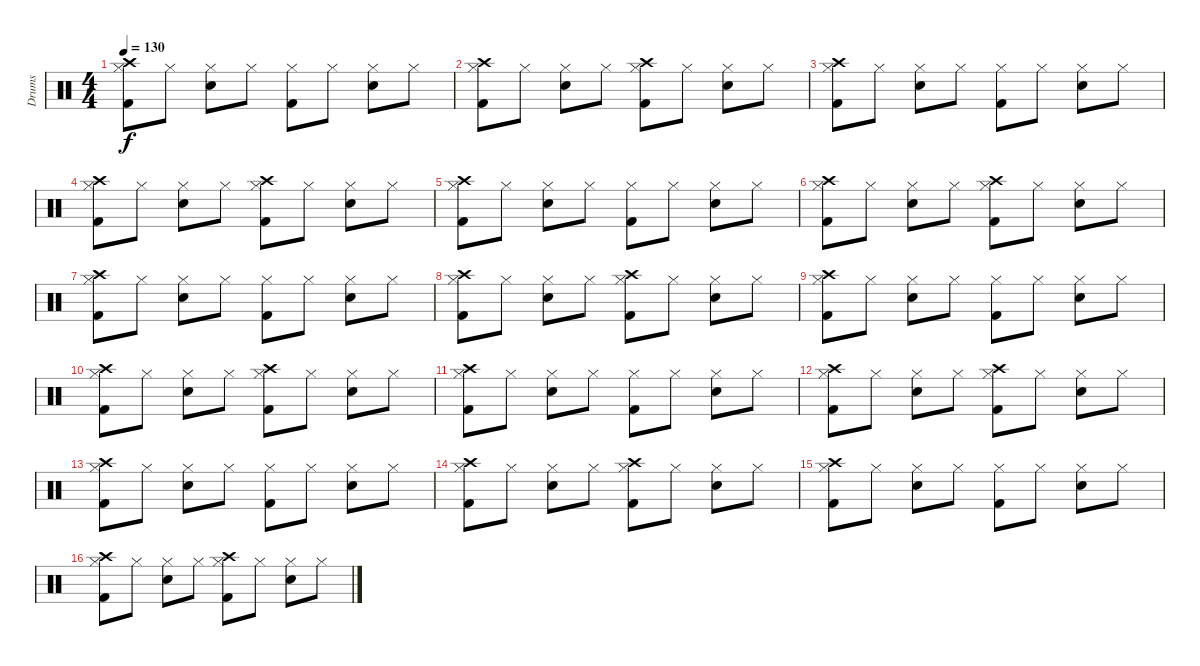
\track ("Drums" "Drums") {instrument percussion}
\staff {score}
\articulation defaults
\ts (4 4)
\tempo 130
\clef neutral
\ks c
("Kick (hit) 2" "Hi-Hat (closed)" "Crash high (hit)").8{dy f} "Hi-Hat (closed)".8 ("Snare (hit) 2" "Hi-Hat (closed)").8 "Hi-Hat (closed)".8 ("Kick (hit) 2" "Hi-Hat (closed)").8 "Hi-Hat (closed)".8 ("Snare (hit) 2" "Hi-Hat (closed)").8 "Hi-Hat (closed)".8 |
("Kick (hit) 2" "Hi-Hat (closed)" "Crash high (hit)").8 "Hi-Hat (closed)".8 ("Snare (hit) 2" "Hi-Hat (closed)").8 "Hi-Hat (closed)".8 ("Kick (hit) 2" "Hi-Hat (closed)" "Crash high (hit)").8 "Hi-Hat (closed)".8 ("Snare (hit) 2" "Hi-Hat (closed)").8 "Hi-Hat (closed)".8 |
("Kick (hit) 2" "Hi-Hat (closed)" "Crash high (hit)").8 "Hi-Hat (closed)".8 ("Snare (hit) 2" "Hi-Hat (closed)").8 "Hi-Hat (closed)".8 ("Kick (hit) 2" "Hi-Hat (closed)").8 "Hi-Hat (closed)".8 ("Snare (hit) 2" "Hi-Hat (closed)").8 "Hi-Hat (closed)".8 |
("Kick (hit) 2" "Hi-Hat (closed)" "Crash high (hit)").8 "Hi-Hat (closed)".8 ("Snare (hit) 2" "Hi-Hat (closed)").8 "Hi-Hat (closed)".8 ("Kick (hit) 2" "Hi-Hat (closed)" "Crash high (hit)").8 "Hi-Hat (closed)".8 ("Snare (hit) 2" "Hi-Hat (closed)").8 "Hi-Hat (closed)".8 |
("Kick (hit) 2" "Hi-Hat (closed)" "Crash high (hit)").8 "Hi-Hat (closed)".8 ("Snare (hit) 2" "Hi-Hat (closed)").8 "Hi-Hat (closed)".8 ("Kick (hit) 2" "Hi-Hat (closed)").8 "Hi-Hat (closed)".8 ("Snare (hit) 2" "Hi-Hat (closed)").8 "Hi-Hat (closed)".8 |
("Kick (hit) 2" "Hi-Hat (closed)" "Crash high (hit)").8 "Hi-Hat (closed)".8 ("Snare (hit) 2" "Hi-Hat (closed)").8 "Hi-Hat (closed)".8 ("Kick (hit) 2" "Hi-Hat (closed)" "Crash high (hit)").8 "Hi-Hat (closed)".8 ("Snare (hit) 2" "Hi-Hat (closed)").8 "Hi-Hat (closed)".8 |
("Kick (hit) 2" "Hi-Hat (closed)" "Crash high (hit)").8 "Hi-Hat (closed)".8 ("Snare (hit) 2" "Hi-Hat (closed)").8 "Hi-Hat (closed)".8 ("Kick (hit) 2" "Hi-Hat (closed)").8 "Hi-Hat (closed)".8 ("Snare (hit) 2" "Hi-Hat (closed)").8 "Hi-Hat (closed)".8 |
("Kick (hit) 2" "Hi-Hat (closed)" "Crash high (hit)").8 "Hi-Hat (closed)".8 ("Snare (hit) 2" "Hi-Hat (closed)").8 "Hi-Hat (closed)".8 ("Kick (hit) 2" "Hi-Hat (closed)" "Crash high (hit)").8 "Hi-Hat (closed)".8 ("Snare (hit) 2" "Hi-Hat (closed)").8 "Hi-Hat (closed)".8 |
("Kick (hit) 2" "Hi-Hat (closed)" "Crash high (hit)").8 "Hi-Hat (closed)".8 ("Snare (hit) 2" "Hi-Hat (closed)").8 "Hi-Hat (closed)".8 ("Kick (hit) 2" "Hi-Hat (closed)").8 "Hi-Hat (closed)".8 ("Snare (hit) 2" "Hi-Hat (closed)").8 "Hi-Hat (closed)".8 |
("Kick (hit) 2" "Hi-Hat (closed)" "Crash high (hit)").8 "Hi-Hat (closed)".8 ("Snare (hit) 2" "Hi-Hat (closed)").8 "Hi-Hat (closed)".8 ("Kick (hit) 2" "Hi-Hat (closed)" "Crash high (hit)").8 "Hi-Hat (closed)".8 ("Snare (hit) 2" "Hi-Hat (closed)").8 "Hi-Hat (closed)".8 |
("Kick (hit) 2" "Hi-Hat (closed)" "Crash high (hit)").8 "Hi-Hat (closed)".8 ("Snare (hit) 2" "Hi-Hat (closed)").8 "Hi-Hat (closed)".8 ("Kick (hit) 2" "Hi-Hat (closed)").8 "Hi-Hat (closed)".8 ("Snare (hit) 2" "Hi-Hat (closed)").8 "Hi-Hat (closed)".8 |
("Kick (hit) 2" "Hi-Hat (closed)" "Crash high (hit)").8 "Hi-Hat (closed)".8 ("Snare (hit) 2" "Hi-Hat (closed)").8 "Hi-Hat (closed)".8 ("Kick (hit) 2" "Hi-Hat (closed)" "Crash high (hit)").8 "Hi-Hat (closed)".8 ("Snare (hit) 2" "Hi-Hat (closed)").8 "Hi-Hat (closed)".8 |
("Kick (hit) 2" "Hi-Hat (closed)" "Crash high (hit)").8 "Hi-Hat (closed)".8 ("Snare (hit) 2" "Hi-Hat (closed)").8 "Hi-Hat (closed)".8 ("Kick (hit) 2" "Hi-Hat (closed)").8 "Hi-Hat (closed)".8 ("Snare (hit) 2" "Hi-Hat (closed)").8 "Hi-Hat (closed)".8 |
("Kick (hit) 2" "Hi-Hat (closed)" "Crash high (hit)").8 "Hi-Hat (closed)".8 ("Snare (hit) 2" "Hi-Hat (closed)").8 "Hi-Hat (closed)".8 ("Kick (hit) 2" "Hi-Hat (closed)" "Crash high (hit)").8 "Hi-Hat (closed)".8 ("Snare (hit) 2" "Hi-Hat (closed)").8 "Hi-Hat (closed)".8 |
("Kick (hit) 2" "Hi-Hat (closed)" "Crash high (hit)").8 "Hi-Hat (closed)".8 ("Snare (hit) 2" "Hi-Hat (closed)").8 "Hi-Hat (closed)".8 ("Kick (hit) 2" "Hi-Hat (closed)").8 "Hi-Hat (closed)".8 ("Snare (hit) 2" "Hi-Hat (closed)").8 "Hi-Hat (closed)".8 |
("Kick (hit) 2" "Hi-Hat (closed)" "Crash high (hit)").8 "Hi-Hat (closed)".8 ("Snare (hit) 2" "Hi-Hat (closed)").8 "Hi-Hat (closed)".8 ("Kick (hit) 2" "Hi-Hat (closed)" "Crash high (hit)").8 "Hi-Hat (closed)".8 ("Snare (hit) 2" "Hi-Hat (closed)").8 "Hi-Hat (closed)".8
